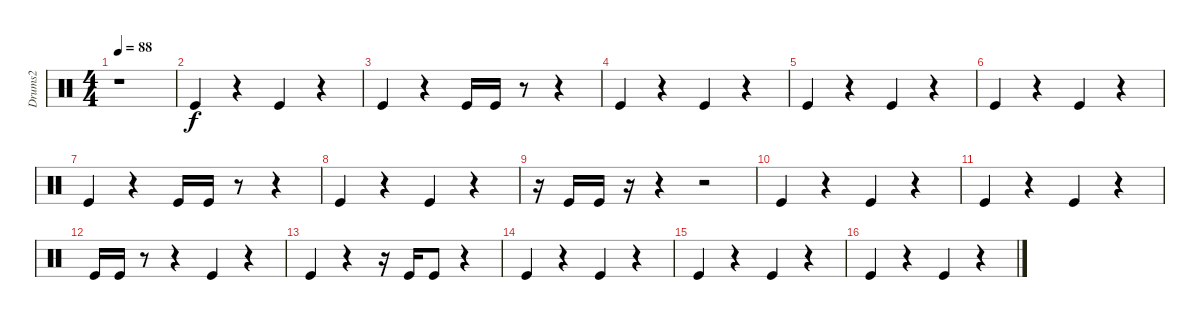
\track ("Drums2" "Drums2") {instrument percussion}
\staff {score}
\articulation defaults
\ts (4 4)
\tempo 88
\clef neutral
\ks c
r.1{dy f} |
"Kick (hit)".4 r.4 "Kick (hit)".4 r.4 |
"Kick (hit)".4 r.4 "Kick (hit)".16 "Kick (hit)".16 r.8 r.4 |
"Kick (hit)".4 r.4 "Kick (hit)".4 r.4 |
"Kick (hit)".4 r.4 "Kick (hit)".4 r.4 |
"Kick (hit)".4 r.4 "Kick (hit)".4 r.4 |
"Kick (hit)".4 r.4 "Kick (hit)".16 "Kick (hit)".16 r.8 r.4 |
"Kick (hit)".4 r.4 "Kick (hit)".4 r.4 |
r.16 "Kick (hit)".16 "Kick (hit)".16 r.16 r.4 r.2 |
"Kick (hit)".4 r.4 "Kick (hit)".4 r.4 |
"Kick (hit)".4 r.4 "Kick (hit)".4 r.4 |
"Kick (hit)".16 "Kick (hit)".16 r.8 r.4 "Kick (hit)".4 r.4 |
"Kick (hit)".4 r.4 r.16 "Kick (hit)".16 "Kick (hit)".8 r.4 |
"Kick (hit)".4 r.4 "Kick (hit)".4 r.4 |
"Kick (hit)".4 r.4 "Kick (hit)".4 r.4 |
"Kick (hit)".4 r.4 "Kick (hit)".4 r.4
